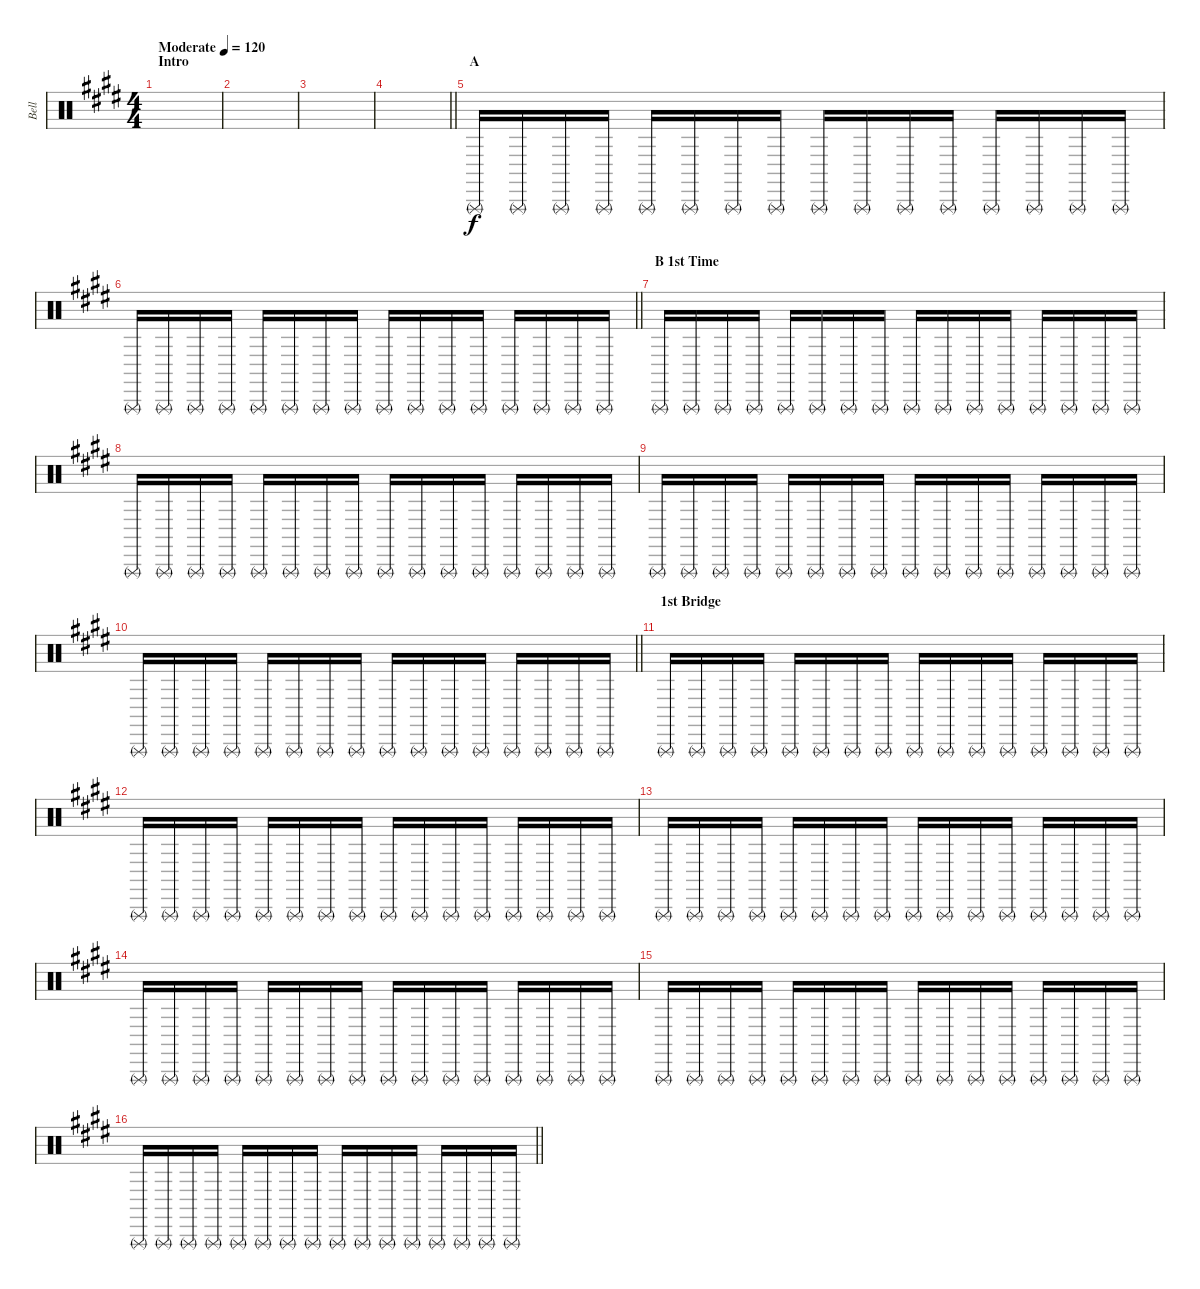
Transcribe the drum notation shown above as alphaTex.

\track ("Bell" "Bell") {instrument percussion}
\staff {score}
\articulation defaults
\ts (4 4)
\section ("" "Intro")
\tempo (120 "Moderate")
\clef neutral
\ks e
|
|
|
\barLineRight lightlight
|
\section ("" "A")
"Triangle (rnute)".16 "Triangle (rnute)".16 "Triangle (rnute)".16 "Triangle (rnute)".16 "Triangle (rnute)".16 "Triangle (rnute)".16 "Triangle (rnute)".16 "Triangle (rnute)".16 "Triangle (rnute)".16 "Triangle (rnute)".16 "Triangle (rnute)".16 "Triangle (rnute)".16 "Triangle (rnute)".16 "Triangle (rnute)".16 "Triangle (rnute)".16 "Triangle (rnute)".16 |
\barLineRight lightlight "Triangle (rnute)".16 "Triangle (rnute)".16 "Triangle (rnute)".16 "Triangle (rnute)".16 "Triangle (rnute)".16 "Triangle (rnute)".16 "Triangle (rnute)".16 "Triangle (rnute)".16 "Triangle (rnute)".16 "Triangle (rnute)".16 "Triangle (rnute)".16 "Triangle (rnute)".16 "Triangle (rnute)".16 "Triangle (rnute)".16 "Triangle (rnute)".16 "Triangle (rnute)".16
|
\section ("" "B 1st Time")
"Triangle (rnute)".16 "Triangle (rnute)".16 "Triangle (rnute)".16 "Triangle (rnute)".16 "Triangle (rnute)".16 "Triangle (rnute)".16 "Triangle (rnute)".16 "Triangle (rnute)".16 "Triangle (rnute)".16 "Triangle (rnute)".16 "Triangle (rnute)".16 "Triangle (rnute)".16 "Triangle (rnute)".16 "Triangle (rnute)".16 "Triangle (rnute)".16 "Triangle (rnute)".16 |
"Triangle (rnute)".16 "Triangle (rnute)".16 "Triangle (rnute)".16 "Triangle (rnute)".16 "Triangle (rnute)".16 "Triangle (rnute)".16 "Triangle (rnute)".16 "Triangle (rnute)".16 "Triangle (rnute)".16 "Triangle (rnute)".16 "Triangle (rnute)".16 "Triangle (rnute)".16 "Triangle (rnute)".16 "Triangle (rnute)".16 "Triangle (rnute)".16 "Triangle (rnute)".16 |
"Triangle (rnute)".16 "Triangle (rnute)".16 "Triangle (rnute)".16 "Triangle (rnute)".16 "Triangle (rnute)".16 "Triangle (rnute)".16 "Triangle (rnute)".16 "Triangle (rnute)".16 "Triangle (rnute)".16 "Triangle (rnute)".16 "Triangle (rnute)".16 "Triangle (rnute)".16 "Triangle (rnute)".16 "Triangle (rnute)".16 "Triangle (rnute)".16 "Triangle (rnute)".16 |
\barLineRight lightlight "Triangle (rnute)".16 "Triangle (rnute)".16 "Triangle (rnute)".16 "Triangle (rnute)".16 "Triangle (rnute)".16 "Triangle (rnute)".16 "Triangle (rnute)".16 "Triangle (rnute)".16 "Triangle (rnute)".16 "Triangle (rnute)".16 "Triangle (rnute)".16 "Triangle (rnute)".16 "Triangle (rnute)".16 "Triangle (rnute)".16 "Triangle (rnute)".16 "Triangle (rnute)".16
|
\section ("" "1st Bridge")
"Triangle (rnute)".16 "Triangle (rnute)".16 "Triangle (rnute)".16 "Triangle (rnute)".16 "Triangle (rnute)".16 "Triangle (rnute)".16 "Triangle (rnute)".16 "Triangle (rnute)".16 "Triangle (rnute)".16 "Triangle (rnute)".16 "Triangle (rnute)".16 "Triangle (rnute)".16 "Triangle (rnute)".16 "Triangle (rnute)".16 "Triangle (rnute)".16 "Triangle (rnute)".16 |
"Triangle (rnute)".16 "Triangle (rnute)".16 "Triangle (rnute)".16 "Triangle (rnute)".16 "Triangle (rnute)".16 "Triangle (rnute)".16 "Triangle (rnute)".16 "Triangle (rnute)".16 "Triangle (rnute)".16 "Triangle (rnute)".16 "Triangle (rnute)".16 "Triangle (rnute)".16 "Triangle (rnute)".16 "Triangle (rnute)".16 "Triangle (rnute)".16 "Triangle (rnute)".16 |
"Triangle (rnute)".16 "Triangle (rnute)".16 "Triangle (rnute)".16 "Triangle (rnute)".16 "Triangle (rnute)".16 "Triangle (rnute)".16 "Triangle (rnute)".16 "Triangle (rnute)".16 "Triangle (rnute)".16 "Triangle (rnute)".16 "Triangle (rnute)".16 "Triangle (rnute)".16 "Triangle (rnute)".16 "Triangle (rnute)".16 "Triangle (rnute)".16 "Triangle (rnute)".16 |
"Triangle (rnute)".16 "Triangle (rnute)".16 "Triangle (rnute)".16 "Triangle (rnute)".16 "Triangle (rnute)".16 "Triangle (rnute)".16 "Triangle (rnute)".16 "Triangle (rnute)".16 "Triangle (rnute)".16 "Triangle (rnute)".16 "Triangle (rnute)".16 "Triangle (rnute)".16 "Triangle (rnute)".16 "Triangle (rnute)".16 "Triangle (rnute)".16 "Triangle (rnute)".16 |
"Triangle (rnute)".16 "Triangle (rnute)".16 "Triangle (rnute)".16 "Triangle (rnute)".16 "Triangle (rnute)".16 "Triangle (rnute)".16 "Triangle (rnute)".16 "Triangle (rnute)".16 "Triangle (rnute)".16 "Triangle (rnute)".16 "Triangle (rnute)".16 "Triangle (rnute)".16 "Triangle (rnute)".16 "Triangle (rnute)".16 "Triangle (rnute)".16 "Triangle (rnute)".16 |
\barLineRight lightlight "Triangle (rnute)".16 "Triangle (rnute)".16 "Triangle (rnute)".16 "Triangle (rnute)".16 "Triangle (rnute)".16 "Triangle (rnute)".16 "Triangle (rnute)".16 "Triangle (rnute)".16 "Triangle (rnute)".16 "Triangle (rnute)".16 "Triangle (rnute)".16 "Triangle (rnute)".16 "Triangle (rnute)".16 "Triangle (rnute)".16 "Triangle (rnute)".16 "Triangle (rnute)".16
